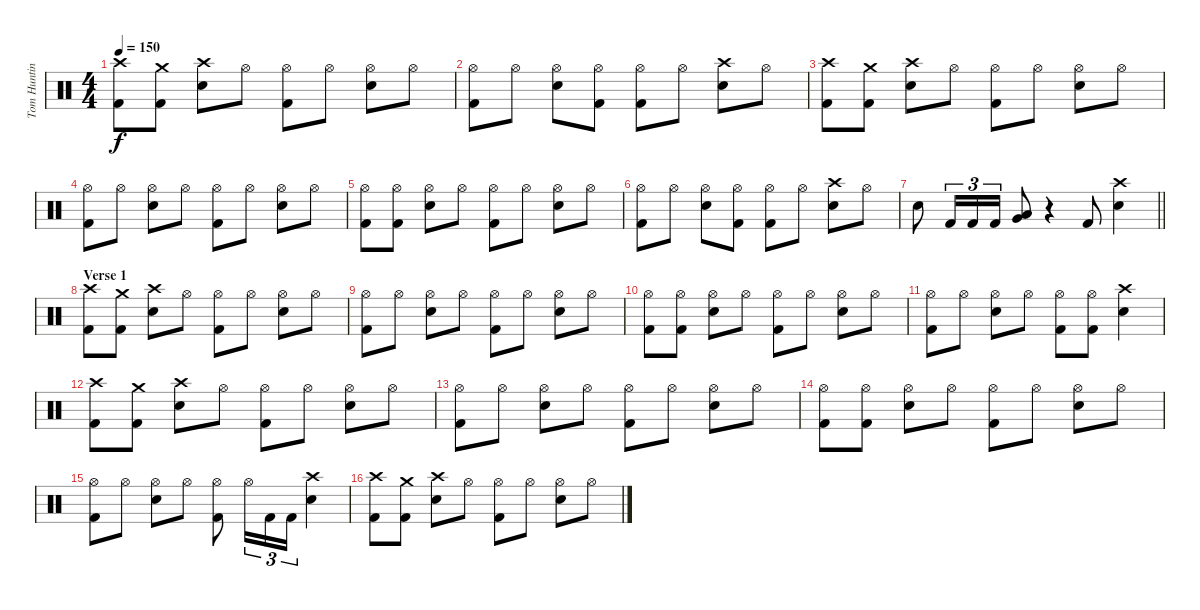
\track ("Tom Hunting" "Tom Huntin") {instrument percussion}
\staff {score}
\articulation defaults
\ts (4 4)
\tempo 150
\clef neutral
\ks c
("Crash high (hit)" "Kick (hit) 2").8{dy f} ("Crash medium (hit)" "Kick (hit) 2").8 ("Crash high (hit)" "Snare (hit) 2").8 "Hi-Hat (open)".8 ("Hi-Hat (open)" "Kick (hit) 2").8 "Hi-Hat (open)".8 ("Hi-Hat (open)" "Snare (hit) 2").8 "Hi-Hat (open)".8 |
("Hi-Hat (open)" "Kick (hit) 2").8 "Hi-Hat (open)".8 ("Hi-Hat (open)" "Snare (hit) 2").8 ("Hi-Hat (open)" "Kick (hit) 2").8 ("Hi-Hat (open)" "Kick (hit) 2").8 "Hi-Hat (open)".8 ("Crash high (hit)" "Snare (hit) 2").8 "Hi-Hat (open)".8 |
("Crash high (hit)" "Kick (hit) 2").8 ("Crash medium (hit)" "Kick (hit) 2").8 ("Crash high (hit)" "Snare (hit) 2").8 "Hi-Hat (open)".8 ("Hi-Hat (open)" "Kick (hit) 2").8 "Hi-Hat (open)".8 ("Hi-Hat (open)" "Snare (hit) 2").8 "Hi-Hat (open)".8 |
("Hi-Hat (open)" "Kick (hit) 2").8 "Hi-Hat (open)".8 ("Hi-Hat (open)" "Snare (hit) 2").8 "Hi-Hat (open)".8 ("Hi-Hat (open)" "Kick (hit) 2").8 "Hi-Hat (open)".8 ("Hi-Hat (open)" "Snare (hit) 2").8 "Hi-Hat (open)".8 |
("Hi-Hat (open)" "Kick (hit) 2").8 ("Hi-Hat (open)" "Kick (hit) 2").8 ("Hi-Hat (open)" "Snare (hit) 2").8 "Hi-Hat (open)".8 ("Hi-Hat (open)" "Kick (hit) 2").8 "Hi-Hat (open)".8 ("Hi-Hat (open)" "Snare (hit) 2").8 "Hi-Hat (open)".8 |
("Hi-Hat (open)" "Kick (hit) 2").8 "Hi-Hat (open)".8 ("Hi-Hat (open)" "Snare (hit) 2").8 ("Hi-Hat (open)" "Kick (hit) 2").8 ("Hi-Hat (open)" "Kick (hit) 2").8 "Hi-Hat (open)".8 ("Crash high (hit)" "Snare (hit) 2").8 "Hi-Hat (open)".8 |
\barLineRight lightlight "Snare (hit) 2".8 "Kick (hit) 2".16{tu (3 2)} "Kick (hit) 2".16{tu (3 2)} "Kick (hit) 2".16{tu (3 2)}
("Very Low Tom (hit)" "Low Floor Tom (hit)").8 r.4 "Kick (hit) 2".8 ("Crash high (hit)" "Snare (hit) 2").4 |
\section ("" "Verse 1")
("Crash high (hit)" "Kick (hit) 2").8 ("Crash medium (hit)" "Kick (hit) 2").8 ("Crash high (hit)" "Snare (hit) 2").8 "Hi-Hat (open)".8 ("Hi-Hat (open)" "Kick (hit) 2").8 "Hi-Hat (open)".8 ("Hi-Hat (open)" "Snare (hit) 2").8 "Hi-Hat (open)".8 |
("Hi-Hat (open)" "Kick (hit) 2").8 "Hi-Hat (open)".8 ("Hi-Hat (open)" "Snare (hit) 2").8 "Hi-Hat (open)".8 ("Hi-Hat (open)" "Kick (hit) 2").8 "Hi-Hat (open)".8 ("Hi-Hat (open)" "Snare (hit) 2").8 "Hi-Hat (open)".8 |
("Hi-Hat (open)" "Kick (hit) 2").8 ("Hi-Hat (open)" "Kick (hit) 2").8 ("Hi-Hat (open)" "Snare (hit) 2").8 "Hi-Hat (open)".8 ("Hi-Hat (open)" "Kick (hit) 2").8 "Hi-Hat (open)".8 ("Hi-Hat (open)" "Snare (hit) 2").8 "Hi-Hat (open)".8 |
("Hi-Hat (open)" "Kick (hit) 2").8 "Hi-Hat (open)".8 ("Hi-Hat (open)" "Snare (hit) 2").8 "Hi-Hat (open)".8 ("Hi-Hat (open)" "Kick (hit) 2").8 ("Hi-Hat (open)" "Kick (hit) 2").8 ("Crash high (hit)" "Snare (hit) 2").4 |
("Crash high (hit)" "Kick (hit) 2").8 ("Crash medium (hit)" "Kick (hit) 2").8 ("Crash high (hit)" "Snare (hit) 2").8 "Hi-Hat (open)".8 ("Hi-Hat (open)" "Kick (hit) 2").8 "Hi-Hat (open)".8 ("Hi-Hat (open)" "Snare (hit) 2").8 "Hi-Hat (open)".8 |
("Hi-Hat (open)" "Kick (hit) 2").8 "Hi-Hat (open)".8 ("Hi-Hat (open)" "Snare (hit) 2").8 "Hi-Hat (open)".8 ("Hi-Hat (open)" "Kick (hit) 2").8 "Hi-Hat (open)".8 ("Hi-Hat (open)" "Snare (hit) 2").8 "Hi-Hat (open)".8 |
("Hi-Hat (open)" "Kick (hit) 2").8 ("Hi-Hat (open)" "Kick (hit) 2").8 ("Hi-Hat (open)" "Snare (hit) 2").8 "Hi-Hat (open)".8 ("Hi-Hat (open)" "Kick (hit) 2").8 "Hi-Hat (open)".8 ("Hi-Hat (open)" "Snare (hit) 2").8 "Hi-Hat (open)".8 |
("Hi-Hat (open)" "Kick (hit) 2").8 "Hi-Hat (open)".8 ("Hi-Hat (open)" "Snare (hit) 2").8 "Hi-Hat (open)".8 ("Hi-Hat (open)" "Kick (hit) 2").8 "Hi-Hat (open)".16{tu (3 2)} "Kick (hit) 2".16{tu (3 2)} "Kick (hit) 2".16{tu (3 2)} ("Crash high (hit)" "Snare (hit) 2").4 |
("Crash high (hit)" "Kick (hit) 2").8 ("Crash medium (hit)" "Kick (hit) 2").8 ("Crash high (hit)" "Snare (hit) 2").8 "Hi-Hat (open)".8 ("Hi-Hat (open)" "Kick (hit) 2").8 "Hi-Hat (open)".8 ("Hi-Hat (open)" "Snare (hit) 2").8 "Hi-Hat (open)".8
